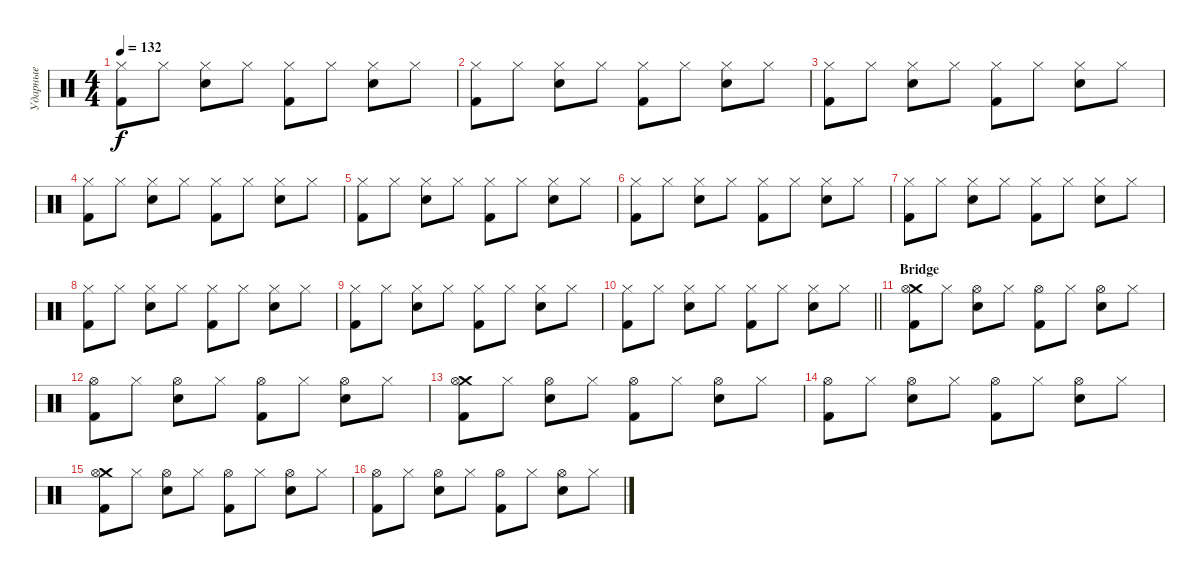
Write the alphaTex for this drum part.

\track ("Ударные" "Ударные") {instrument percussion}
\staff {score}
\articulation defaults
\ts (4 4)
\tempo 132
\clef neutral
\ks c
("Hi-Hat (closed)" "Kick (hit) 2").8{dy f} "Hi-Hat (closed)".8 ("Hi-Hat (closed)" "Snare (hit) 2").8 "Hi-Hat (closed)".8 ("Hi-Hat (closed)" "Kick (hit) 2").8 "Hi-Hat (closed)".8 ("Hi-Hat (closed)" "Snare (hit) 2").8 "Hi-Hat (closed)".8 |
("Hi-Hat (closed)" "Kick (hit) 2").8 "Hi-Hat (closed)".8 ("Hi-Hat (closed)" "Snare (hit) 2").8 "Hi-Hat (closed)".8 ("Hi-Hat (closed)" "Kick (hit) 2").8 "Hi-Hat (closed)".8 ("Hi-Hat (closed)" "Snare (hit) 2").8 "Hi-Hat (closed)".8 |
("Hi-Hat (closed)" "Kick (hit) 2").8 "Hi-Hat (closed)".8 ("Hi-Hat (closed)" "Snare (hit) 2").8 "Hi-Hat (closed)".8 ("Hi-Hat (closed)" "Kick (hit) 2").8 "Hi-Hat (closed)".8 ("Hi-Hat (closed)" "Snare (hit) 2").8 "Hi-Hat (closed)".8 |
("Hi-Hat (closed)" "Kick (hit) 2").8 "Hi-Hat (closed)".8 ("Hi-Hat (closed)" "Snare (hit) 2").8 "Hi-Hat (closed)".8 ("Hi-Hat (closed)" "Kick (hit) 2").8 "Hi-Hat (closed)".8 ("Hi-Hat (closed)" "Snare (hit) 2").8 "Hi-Hat (closed)".8 |
("Hi-Hat (closed)" "Kick (hit) 2").8 "Hi-Hat (closed)".8 ("Hi-Hat (closed)" "Snare (hit) 2").8 "Hi-Hat (closed)".8 ("Hi-Hat (closed)" "Kick (hit) 2").8 "Hi-Hat (closed)".8 ("Hi-Hat (closed)" "Snare (hit) 2").8 "Hi-Hat (closed)".8 |
("Hi-Hat (closed)" "Kick (hit) 2").8 "Hi-Hat (closed)".8 ("Hi-Hat (closed)" "Snare (hit) 2").8 "Hi-Hat (closed)".8 ("Hi-Hat (closed)" "Kick (hit) 2").8 "Hi-Hat (closed)".8 ("Hi-Hat (closed)" "Snare (hit) 2").8 "Hi-Hat (closed)".8 |
("Hi-Hat (closed)" "Kick (hit) 2").8 "Hi-Hat (closed)".8 ("Hi-Hat (closed)" "Snare (hit) 2").8 "Hi-Hat (closed)".8 ("Hi-Hat (closed)" "Kick (hit) 2").8 "Hi-Hat (closed)".8 ("Hi-Hat (closed)" "Snare (hit) 2").8 "Hi-Hat (closed)".8 |
("Hi-Hat (closed)" "Kick (hit) 2").8 "Hi-Hat (closed)".8 ("Hi-Hat (closed)" "Snare (hit) 2").8 "Hi-Hat (closed)".8 ("Hi-Hat (closed)" "Kick (hit) 2").8 "Hi-Hat (closed)".8 ("Hi-Hat (closed)" "Snare (hit) 2").8 "Hi-Hat (closed)".8 |
("Hi-Hat (closed)" "Kick (hit) 2").8 "Hi-Hat (closed)".8 ("Hi-Hat (closed)" "Snare (hit) 2").8 "Hi-Hat (closed)".8 ("Hi-Hat (closed)" "Kick (hit) 2").8 "Hi-Hat (closed)".8 ("Hi-Hat (closed)" "Snare (hit) 2").8 "Hi-Hat (closed)".8 |
\barLineRight lightlight
("Hi-Hat (closed)" "Kick (hit) 2").8 "Hi-Hat (closed)".8 ("Hi-Hat (closed)" "Snare (hit) 2").8 "Hi-Hat (closed)".8 ("Hi-Hat (closed)" "Kick (hit) 2").8 "Hi-Hat (closed)".8 ("Hi-Hat (closed)" "Snare (hit) 2").8 "Hi-Hat (closed)".8 |
\section ("" "Bridge")
("Crash medium (hit)" "Hi-Hat (open)" "Kick (hit) 2").8 "Hi-Hat (closed)".8 ("Hi-Hat (open)" "Snare (hit) 2").8 "Hi-Hat (closed)".8 ("Hi-Hat (open)" "Kick (hit) 2").8 "Hi-Hat (closed)".8 ("Hi-Hat (open)" "Snare (hit) 2").8 "Hi-Hat (closed)".8 |
("Hi-Hat (open)" "Kick (hit) 2").8 "Hi-Hat (closed)".8 ("Hi-Hat (open)" "Snare (hit) 2").8 "Hi-Hat (closed)".8 ("Hi-Hat (open)" "Kick (hit) 2").8 "Hi-Hat (closed)".8 ("Hi-Hat (open)" "Snare (hit) 2").8 "Hi-Hat (closed)".8 |
("Crash medium (hit)" "Hi-Hat (open)" "Kick (hit) 2").8 "Hi-Hat (closed)".8 ("Hi-Hat (open)" "Snare (hit) 2").8 "Hi-Hat (closed)".8 ("Hi-Hat (open)" "Kick (hit) 2").8 "Hi-Hat (closed)".8 ("Hi-Hat (open)" "Snare (hit) 2").8 "Hi-Hat (closed)".8 |
("Hi-Hat (open)" "Kick (hit) 2").8 "Hi-Hat (closed)".8 ("Hi-Hat (open)" "Snare (hit) 2").8 "Hi-Hat (closed)".8 ("Hi-Hat (open)" "Kick (hit) 2").8 "Hi-Hat (closed)".8 ("Hi-Hat (open)" "Snare (hit) 2").8 "Hi-Hat (closed)".8 |
("Crash medium (hit)" "Hi-Hat (open)" "Kick (hit) 2").8 "Hi-Hat (closed)".8 ("Hi-Hat (open)" "Snare (hit) 2").8 "Hi-Hat (closed)".8 ("Hi-Hat (open)" "Kick (hit) 2").8 "Hi-Hat (closed)".8 ("Hi-Hat (open)" "Snare (hit) 2").8 "Hi-Hat (closed)".8 |
("Hi-Hat (open)" "Kick (hit) 2").8 "Hi-Hat (closed)".8 ("Hi-Hat (open)" "Snare (hit) 2").8 "Hi-Hat (closed)".8 ("Hi-Hat (open)" "Kick (hit) 2").8 "Hi-Hat (closed)".8 ("Hi-Hat (open)" "Snare (hit) 2").8 "Hi-Hat (closed)".8
